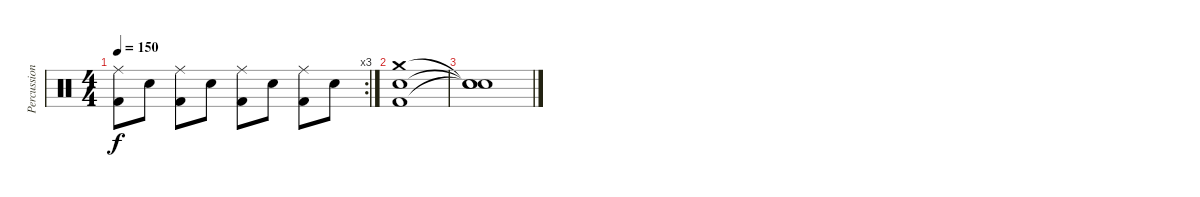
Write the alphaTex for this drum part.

\track ("Percussions" "Percussion") {instrument percussion}
\staff {score}
\articulation defaults
\rc 3
\ts (4 4)
\tempo 150
\clef neutral
\ks c
("Ride (middle)" "Kick (hit) 2").8{dy f} "Snare (hit) 2".8 ("Ride (middle)" "Kick (hit) 2").8 "Snare (hit) 2".8 ("Ride (middle)" "Kick (hit) 2").8 "Snare (hit) 2".8 ("Ride (middle)" "Kick (hit) 2").8 "Snare (hit) 2".8 |
("Crash medium (hit)" "Snare (hit) 2" "Kick (hit) 2").1 |
("Snare (hit)"{t} "Snare (hit)"{t} "Snare (hit)"{t}).1
